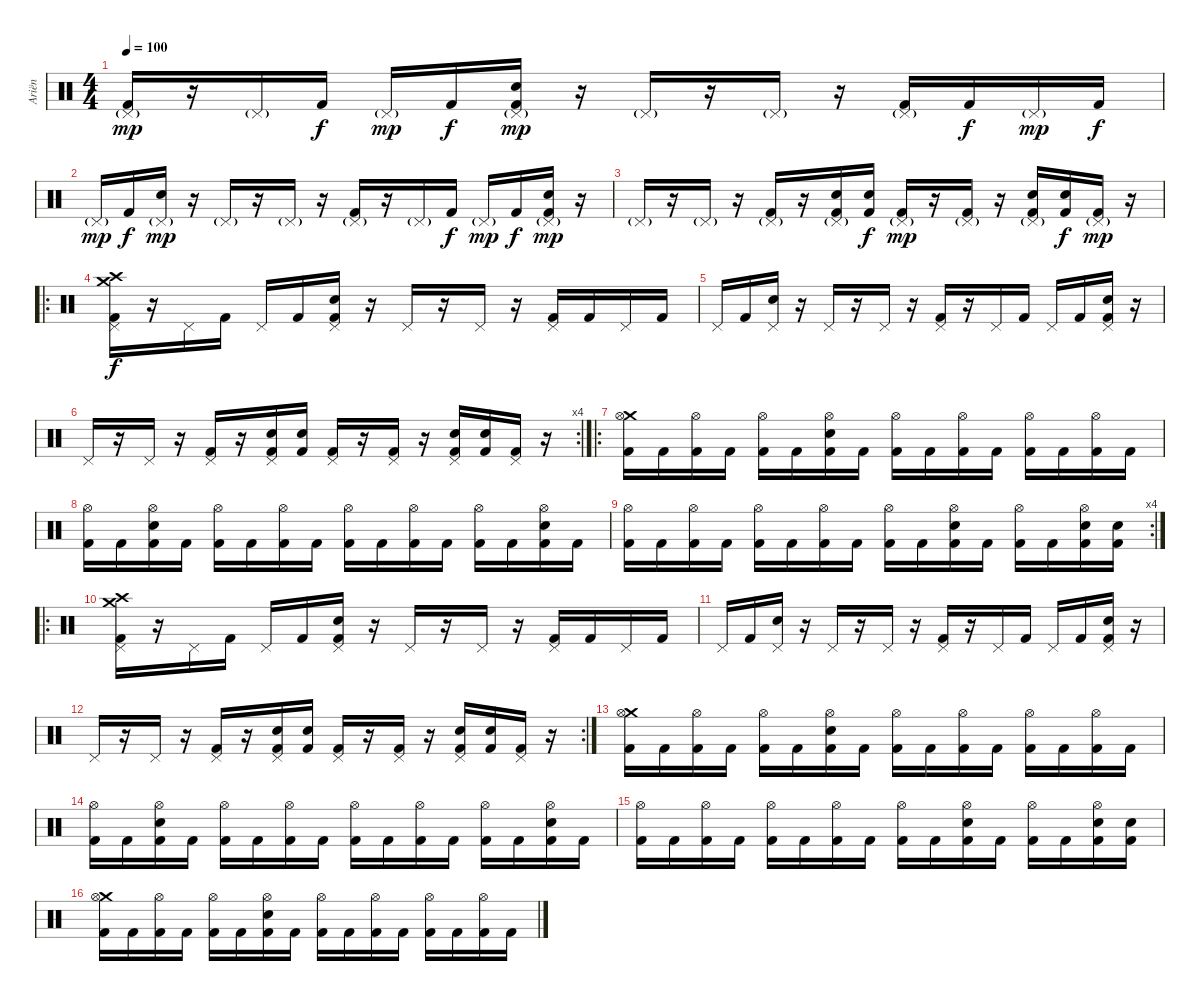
\track ("Ariën" "Ariën") {instrument percussion}
\staff {score}
\articulation defaults
\ts (4 4)
\tempo 100
\clef neutral
\ks c
("Pedal Hi-Hat (hit)"{g} "Kick (hit) 2").16{dy mp} r.16 "Pedal Hi-Hat (hit)"{g}.16 "Kick (hit) 2".16{dy f} "Pedal Hi-Hat (hit)"{g}.16{dy mp} "Kick (hit) 2".16{dy f} ("Pedal Hi-Hat (hit)"{g} "Snare (hit) 2" "Kick (hit) 2").16{dy mp} r.16 "Pedal Hi-Hat (hit)"{g}.16 r.16 "Pedal Hi-Hat (hit)"{g}.16 r.16 ("Pedal Hi-Hat (hit)"{g} "Kick (hit) 2").16 "Kick (hit) 2".16{dy f} "Pedal Hi-Hat (hit)"{g}.16{dy mp} "Kick (hit) 2".16{dy f} |
"Pedal Hi-Hat (hit)"{g}.16{dy mp} "Kick (hit) 2".16{dy f} ("Pedal Hi-Hat (hit)"{g} "Snare (hit) 2").16{dy mp} r.16 "Pedal Hi-Hat (hit)"{g}.16 r.16 "Pedal Hi-Hat (hit)"{g}.16 r.16 ("Pedal Hi-Hat (hit)"{g} "Kick (hit) 2").16 r.16 "Pedal Hi-Hat (hit)"{g}.16 "Kick (hit) 2".16{dy f} "Pedal Hi-Hat (hit)"{g}.16{dy mp} "Kick (hit) 2".16{dy f} ("Pedal Hi-Hat (hit)"{g} "Snare (hit) 2" "Kick (hit) 2").16{dy mp} r.16 |
"Pedal Hi-Hat (hit)"{g}.16 r.16 "Pedal Hi-Hat (hit)"{g}.16 r.16 ("Pedal Hi-Hat (hit)"{g} "Kick (hit) 2").16 r.16 ("Pedal Hi-Hat (hit)"{g} "Snare (hit) 2" "Kick (hit) 2").16 ("Snare (hit) 2" "Kick (hit) 2").16{dy f} ("Pedal Hi-Hat (hit)"{g} "Kick (hit) 2").16{dy mp} r.16 ("Pedal Hi-Hat (hit)"{g} "Kick (hit) 2").16 r.16 ("Pedal Hi-Hat (hit)"{g} "Snare (hit) 2" "Kick (hit) 2").16 ("Snare (hit) 2" "Kick (hit) 2").16{dy f} ("Pedal Hi-Hat (hit)"{g} "Kick (hit) 2").16{dy mp} r.16 |
\ro
("Crash medium (hit)" "Crash high (hit)" "Pedal Hi-Hat (hit)" "Kick (hit) 2").16{dy f} r.16 "Pedal Hi-Hat (hit)".16 "Kick (hit) 2".16 "Pedal Hi-Hat (hit)".16 "Kick (hit) 2".16 ("Pedal Hi-Hat (hit)" "Snare (hit) 2" "Kick (hit) 2").16 r.16 "Pedal Hi-Hat (hit)".16 r.16 "Pedal Hi-Hat (hit)".16 r.16 ("Pedal Hi-Hat (hit)" "Kick (hit) 2").16 "Kick (hit) 2".16 "Pedal Hi-Hat (hit)".16 "Kick (hit) 2".16 |
"Pedal Hi-Hat (hit)".16 "Kick (hit) 2".16 ("Pedal Hi-Hat (hit)" "Snare (hit) 2").16 r.16 "Pedal Hi-Hat (hit)".16 r.16 "Pedal Hi-Hat (hit)".16 r.16 ("Pedal Hi-Hat (hit)" "Kick (hit) 2").16 r.16 "Pedal Hi-Hat (hit)".16 "Kick (hit) 2".16 "Pedal Hi-Hat (hit)".16 "Kick (hit) 2".16 ("Pedal Hi-Hat (hit)" "Snare (hit) 2" "Kick (hit) 2").16 r.16 |
\rc 4 "Pedal Hi-Hat (hit)".16
r.16 "Pedal Hi-Hat (hit)".16 r.16 ("Pedal Hi-Hat (hit)" "Kick (hit) 2").16 r.16 ("Pedal Hi-Hat (hit)" "Snare (hit) 2" "Kick (hit) 2").16 ("Snare (hit) 2" "Kick (hit) 2").16 ("Pedal Hi-Hat (hit)" "Kick (hit) 2").16 r.16 ("Pedal Hi-Hat (hit)" "Kick (hit) 2").16 r.16 ("Pedal Hi-Hat (hit)" "Snare (hit) 2" "Kick (hit) 2").16 ("Snare (hit) 2" "Kick (hit) 2").16 ("Pedal Hi-Hat (hit)" "Kick (hit) 2").16 r.16 |
\ro
("Crash medium (hit)" "Hi-Hat (open)" "Kick (hit) 2").16 "Kick (hit) 2".16 ("Hi-Hat (open)" "Kick (hit) 2").16 "Kick (hit) 2".16 ("Hi-Hat (open)" "Kick (hit) 2").16 "Kick (hit) 2".16 ("Hi-Hat (open)" "Snare (hit) 2" "Kick (hit) 2").16 "Kick (hit) 2".16 ("Hi-Hat (open)" "Kick (hit) 2").16 "Kick (hit) 2".16 ("Hi-Hat (open)" "Kick (hit) 2").16 "Kick (hit) 2".16 ("Hi-Hat (open)" "Kick (hit) 2").16 "Kick (hit) 2".16 ("Hi-Hat (open)" "Kick (hit) 2").16 "Kick (hit) 2".16 |
("Hi-Hat (open)" "Kick (hit) 2").16 "Kick (hit) 2".16 ("Hi-Hat (open)" "Snare (hit) 2" "Kick (hit) 2").16 "Kick (hit) 2".16 ("Hi-Hat (open)" "Kick (hit) 2").16 "Kick (hit) 2".16 ("Hi-Hat (open)" "Kick (hit) 2").16 "Kick (hit) 2".16 ("Hi-Hat (open)" "Kick (hit) 2").16 "Kick (hit) 2".16 ("Hi-Hat (open)" "Kick (hit) 2").16 "Kick (hit) 2".16 ("Hi-Hat (open)" "Kick (hit) 2").16 "Kick (hit) 2".16 ("Hi-Hat (open)" "Snare (hit) 2" "Kick (hit) 2").16 "Kick (hit) 2".16 |
\rc 4
("Hi-Hat (open)" "Kick (hit) 2").16 "Kick (hit) 2".16 ("Hi-Hat (open)" "Kick (hit) 2").16 "Kick (hit) 2".16 ("Hi-Hat (open)" "Kick (hit) 2").16 "Kick (hit) 2".16 ("Hi-Hat (open)" "Kick (hit) 2").16 "Kick (hit) 2".16 ("Hi-Hat (open)" "Kick (hit) 2").16 "Kick (hit) 2".16 ("Hi-Hat (open)" "Snare (hit) 2" "Kick (hit) 2").16 "Kick (hit) 2".16 ("Hi-Hat (open)" "Kick (hit) 2").16 "Kick (hit) 2".16 ("Hi-Hat (open)" "Snare (hit) 2" "Kick (hit) 2").16 ("Snare (hit) 2" "Kick (hit) 2").16 |
\ro
("Crash medium (hit)" "Crash high (hit)" "Pedal Hi-Hat (hit)" "Kick (hit) 2").16 r.16 "Pedal Hi-Hat (hit)".16 "Kick (hit) 2".16 "Pedal Hi-Hat (hit)".16 "Kick (hit) 2".16 ("Pedal Hi-Hat (hit)" "Snare (hit) 2" "Kick (hit) 2").16 r.16 "Pedal Hi-Hat (hit)".16 r.16 "Pedal Hi-Hat (hit)".16 r.16 ("Pedal Hi-Hat (hit)" "Kick (hit) 2").16 "Kick (hit) 2".16 "Pedal Hi-Hat (hit)".16 "Kick (hit) 2".16 |
"Pedal Hi-Hat (hit)".16 "Kick (hit) 2".16 ("Pedal Hi-Hat (hit)" "Snare (hit) 2").16 r.16 "Pedal Hi-Hat (hit)".16 r.16 "Pedal Hi-Hat (hit)".16 r.16 ("Pedal Hi-Hat (hit)" "Kick (hit) 2").16 r.16 "Pedal Hi-Hat (hit)".16 "Kick (hit) 2".16 "Pedal Hi-Hat (hit)".16 "Kick (hit) 2".16 ("Pedal Hi-Hat (hit)" "Snare (hit) 2" "Kick (hit) 2").16 r.16 |
\rc 2 "Pedal Hi-Hat (hit)".16
r.16 "Pedal Hi-Hat (hit)".16 r.16 ("Pedal Hi-Hat (hit)" "Kick (hit) 2").16 r.16 ("Pedal Hi-Hat (hit)" "Snare (hit) 2" "Kick (hit) 2").16 ("Snare (hit) 2" "Kick (hit) 2").16 ("Pedal Hi-Hat (hit)" "Kick (hit) 2").16 r.16 ("Pedal Hi-Hat (hit)" "Kick (hit) 2").16 r.16 ("Pedal Hi-Hat (hit)" "Snare (hit) 2" "Kick (hit) 2").16 ("Snare (hit) 2" "Kick (hit) 2").16 ("Pedal Hi-Hat (hit)" "Kick (hit) 2").16 r.16 |
("Crash medium (hit)" "Hi-Hat (open)" "Kick (hit) 2").16 "Kick (hit) 2".16 ("Hi-Hat (open)" "Kick (hit) 2").16 "Kick (hit) 2".16 ("Hi-Hat (open)" "Kick (hit) 2").16 "Kick (hit) 2".16 ("Hi-Hat (open)" "Snare (hit) 2" "Kick (hit) 2").16 "Kick (hit) 2".16 ("Hi-Hat (open)" "Kick (hit) 2").16 "Kick (hit) 2".16 ("Hi-Hat (open)" "Kick (hit) 2").16 "Kick (hit) 2".16 ("Hi-Hat (open)" "Kick (hit) 2").16 "Kick (hit) 2".16 ("Hi-Hat (open)" "Kick (hit) 2").16 "Kick (hit) 2".16 |
("Hi-Hat (open)" "Kick (hit) 2").16 "Kick (hit) 2".16 ("Hi-Hat (open)" "Snare (hit) 2" "Kick (hit) 2").16 "Kick (hit) 2".16 ("Hi-Hat (open)" "Kick (hit) 2").16 "Kick (hit) 2".16 ("Hi-Hat (open)" "Kick (hit) 2").16 "Kick (hit) 2".16 ("Hi-Hat (open)" "Kick (hit) 2").16 "Kick (hit) 2".16 ("Hi-Hat (open)" "Kick (hit) 2").16 "Kick (hit) 2".16 ("Hi-Hat (open)" "Kick (hit) 2").16 "Kick (hit) 2".16 ("Hi-Hat (open)" "Snare (hit) 2" "Kick (hit) 2").16 "Kick (hit) 2".16 |
("Hi-Hat (open)" "Kick (hit) 2").16 "Kick (hit) 2".16 ("Hi-Hat (open)" "Kick (hit) 2").16 "Kick (hit) 2".16 ("Hi-Hat (open)" "Kick (hit) 2").16 "Kick (hit) 2".16 ("Hi-Hat (open)" "Kick (hit) 2").16 "Kick (hit) 2".16 ("Hi-Hat (open)" "Kick (hit) 2").16 "Kick (hit) 2".16 ("Hi-Hat (open)" "Snare (hit) 2" "Kick (hit) 2").16 "Kick (hit) 2".16 ("Hi-Hat (open)" "Kick (hit) 2").16 "Kick (hit) 2".16 ("Hi-Hat (open)" "Snare (hit) 2" "Kick (hit) 2").16 ("Snare (hit) 2" "Kick (hit) 2").16 |
("Crash medium (hit)" "Hi-Hat (open)" "Kick (hit) 2").16 "Kick (hit) 2".16 ("Hi-Hat (open)" "Kick (hit) 2").16 "Kick (hit) 2".16 ("Hi-Hat (open)" "Kick (hit) 2").16 "Kick (hit) 2".16 ("Hi-Hat (open)" "Snare (hit) 2" "Kick (hit) 2").16 "Kick (hit) 2".16 ("Hi-Hat (open)" "Kick (hit) 2").16 "Kick (hit) 2".16 ("Hi-Hat (open)" "Kick (hit) 2").16 "Kick (hit) 2".16 ("Hi-Hat (open)" "Kick (hit) 2").16 "Kick (hit) 2".16 ("Hi-Hat (open)" "Kick (hit) 2").16 "Kick (hit) 2".16
